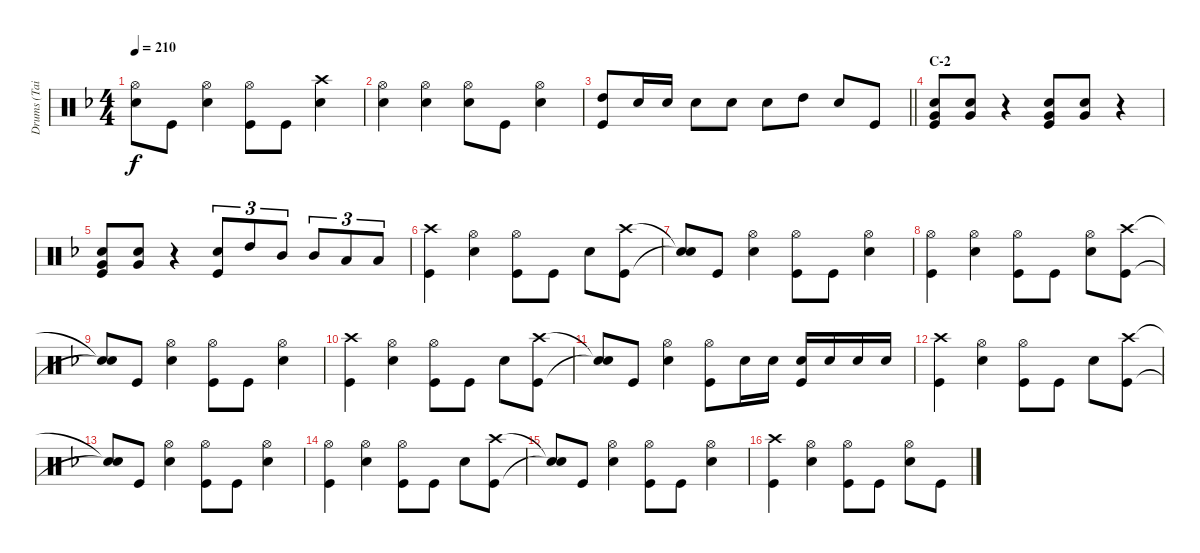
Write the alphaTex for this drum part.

\track ("Drums (Tainaka Ritsu)" "Drums (Tai") {instrument percussion}
\staff {score}
\articulation defaults
\ts (4 4)
\tempo 210
\clef neutral
\ks f
("Hi-Hat (open)" "Snare (hit)"{t}).8{dy f} "Kick (hit)".8 ("Hi-Hat (open)" "Snare (hit) 2").4 ("Hi-Hat (open)" "Kick (hit)").8 "Kick (hit)".8 ("Crash high (hit)" "Snare (hit) 2").4 |
("Hi-Hat (open)" "Snare (hit) 2").4 ("Hi-Hat (open)" "Snare (hit) 2").4 ("Hi-Hat (open)" "Snare (hit) 2").8 "Kick (hit)".8 ("Hi-Hat (open)" "Snare (hit) 2").4 |
\barLineRight lightlight
("High Tom (hit)" "Kick (hit)").8 "Snare (hit) 2".16 "Snare (hit) 2".16 "Snare (hit) 2".8 "Snare (hit) 2".8 "Snare (hit) 2".8 "High Tom (hit)".8 "Snare (hit) 2".8 "Kick (hit)".8 |
\section ("" "C-2")
("Snare (hit) 2" "Very Low Tom (hit)" "Kick (hit)").8 ("Snare (hit) 2" "Very Low Tom (hit)").8 r.4 ("Snare (hit) 2" "Very Low Tom (hit)" "Kick (hit)").8 ("Snare (hit) 2" "Very Low Tom (hit)").8 r.4 |
("Snare (hit) 2" "Very Low Tom (hit)" "Kick (hit)").8 ("Snare (hit) 2" "Very Low Tom (hit)").8 r.4 ("Snare (hit) 2" "Kick (hit)").8{tu (3 2)} "High Tom (hit)".8{tu (3 2)} "Mid Tom (hit)".8{tu (3 2)} "Mid Tom (hit)".8{tu (3 2)} "Low Tom (hit)".8{tu (3 2)} "Low Tom (hit)".8{tu (3 2)} |
("Crash high (hit)" "Kick (hit)").4 ("Hi-Hat (open)" "Snare (hit) 2").4 ("Hi-Hat (open)" "Kick (hit)").8 "Kick (hit)".8 "Snare (hit) 2".8 ("Crash high (hit)" "Kick (hit)").8 |
("Snare (hit)"{t} "Snare (hit)"{t}).8 "Kick (hit)".8 ("Hi-Hat (open)" "Snare (hit) 2").4 ("Hi-Hat (open)" "Kick (hit)").8 "Kick (hit)".8 ("Hi-Hat (open)" "Snare (hit) 2").4 |
("Hi-Hat (open)" "Kick (hit)").4 ("Hi-Hat (open)" "Snare (hit) 2").4 ("Hi-Hat (open)" "Kick (hit)").8 "Kick (hit)".8 ("Hi-Hat (open)" "Snare (hit) 2").8 ("Crash high (hit)" "Kick (hit)").8 |
("Snare (hit)"{t} "Snare (hit)"{t}).8 "Kick (hit)".8 ("Hi-Hat (open)" "Snare (hit) 2").4 ("Hi-Hat (open)" "Kick (hit)").8 "Kick (hit)".8 ("Hi-Hat (open)" "Snare (hit) 2").4 |
("Crash high (hit)" "Kick (hit)").4 ("Hi-Hat (open)" "Snare (hit) 2").4 ("Hi-Hat (open)" "Kick (hit)").8 "Kick (hit)".8 "Snare (hit) 2".8 ("Crash high (hit)" "Kick (hit)").8 |
("Snare (hit)"{t} "Snare (hit)"{t}).8 "Kick (hit)".8 ("Hi-Hat (open)" "Snare (hit) 2").4 ("Hi-Hat (open)" "Kick (hit)").8 "Snare (hit) 2".16 "Snare (hit) 2".16 ("Snare (hit) 2" "Kick (hit)").16 "Snare (hit) 2".16 "Snare (hit) 2".16 "Snare (hit) 2".16 |
("Crash high (hit)" "Kick (hit)").4 ("Hi-Hat (open)" "Snare (hit) 2").4 ("Hi-Hat (open)" "Kick (hit)").8 "Kick (hit)".8 "Snare (hit) 2".8 ("Crash high (hit)" "Kick (hit)").8 |
("Snare (hit)"{t} "Snare (hit)"{t}).8 "Kick (hit)".8 ("Hi-Hat (open)" "Snare (hit) 2").4 ("Hi-Hat (open)" "Kick (hit)").8 "Kick (hit)".8 ("Hi-Hat (open)" "Snare (hit) 2").4 |
("Hi-Hat (open)" "Kick (hit)").4 ("Hi-Hat (open)" "Snare (hit) 2").4 ("Hi-Hat (open)" "Kick (hit)").8 "Kick (hit)".8 "Snare (hit) 2".8 ("Crash high (hit)" "Kick (hit)").8 |
("Snare (hit)"{t} "Snare (hit)"{t}).8 "Kick (hit)".8 ("Hi-Hat (open)" "Snare (hit) 2").4 ("Hi-Hat (open)" "Kick (hit)").8 "Kick (hit)".8 ("Hi-Hat (open)" "Snare (hit) 2").4 |
("Crash high (hit)" "Kick (hit)").4 ("Hi-Hat (open)" "Snare (hit) 2").4 ("Hi-Hat (open)" "Kick (hit)").8 "Kick (hit)".8 ("Hi-Hat (open)" "Snare (hit) 2").8 "Kick (hit)".8
